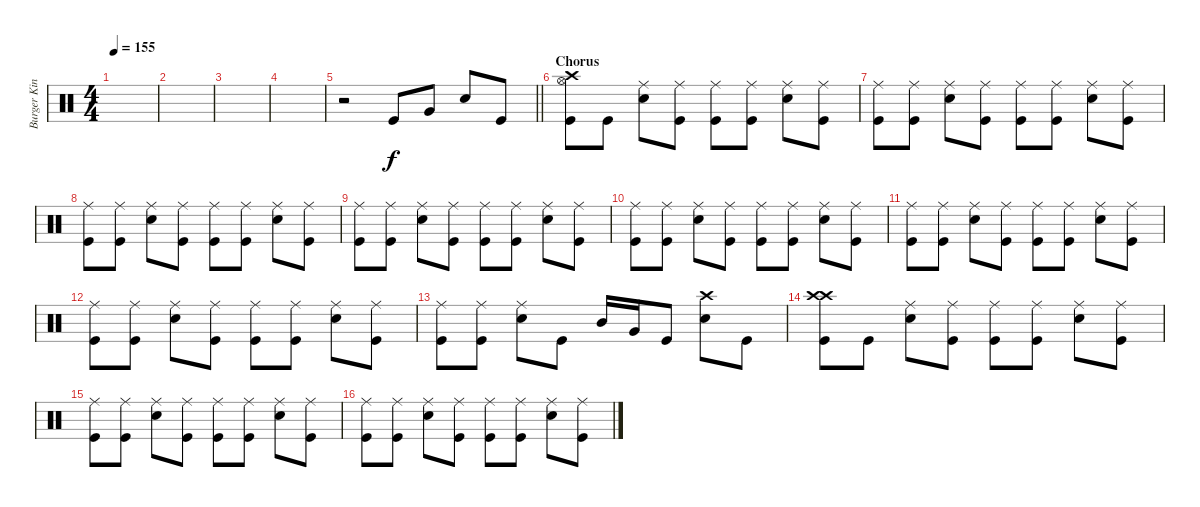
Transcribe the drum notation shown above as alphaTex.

\track ("Burger King" "Burger Kin") {instrument percussion}
\staff {score}
\articulation defaults
\ts (4 4)
\tempo 155
\clef neutral
\ks c
|
|
|
|
\barLineRight lightlight
r.2 "Kick (hit)".8 "Very Low Tom (hit)".8 "Snare (hit) 2".8 "Kick (hit)".8 |
\section ("" "Chorus")
("Hi-Hat (open)" "Crash high (hit)" "Kick (hit)").8 "Kick (hit)".8 ("Snare (hit) 2" "Ride (middle)").8 ("Kick (hit)" "Ride (middle)").8 ("Kick (hit)" "Ride (middle)").8 ("Kick (hit)" "Ride (middle)").8 ("Snare (hit) 2" "Ride (middle)").8 ("Ride (middle)" "Kick (hit)").8 |
("Kick (hit)" "Ride (middle)").8 ("Kick (hit)" "Ride (middle)").8 ("Snare (hit) 2" "Ride (middle)").8 ("Kick (hit)" "Ride (middle)").8 ("Kick (hit)" "Ride (middle)").8 ("Kick (hit)" "Ride (middle)").8 ("Snare (hit) 2" "Ride (middle)").8 ("Kick (hit)" "Ride (middle)").8 |
("Kick (hit)" "Ride (middle)").8 ("Kick (hit)" "Ride (middle)").8 ("Snare (hit) 2" "Ride (middle)").8 ("Kick (hit)" "Ride (middle)").8 ("Kick (hit)" "Ride (middle)").8 ("Kick (hit)" "Ride (middle)").8 ("Snare (hit) 2" "Ride (middle)").8 ("Kick (hit)" "Ride (middle)").8 |
("Kick (hit)" "Ride (middle)").8 ("Kick (hit)" "Ride (middle)").8 ("Snare (hit) 2" "Ride (middle)").8 ("Kick (hit)" "Ride (middle)").8 ("Kick (hit)" "Ride (middle)").8 ("Kick (hit)" "Ride (middle)").8 ("Snare (hit) 2" "Ride (middle)").8 ("Kick (hit)" "Ride (middle)").8 |
("Kick (hit)" "Ride (middle)").8 ("Kick (hit)" "Ride (middle)").8 ("Snare (hit) 2" "Ride (middle)").8 ("Kick (hit)" "Ride (middle)").8 ("Kick (hit)" "Ride (middle)").8 ("Kick (hit)" "Ride (middle)").8 ("Snare (hit) 2" "Ride (middle)").8 ("Kick (hit)" "Ride (middle)").8 |
("Kick (hit)" "Ride (middle)").8 ("Kick (hit)" "Ride (middle)").8 ("Snare (hit) 2" "Ride (middle)").8 ("Kick (hit)" "Ride (middle)").8 ("Kick (hit)" "Ride (middle)").8 ("Kick (hit)" "Ride (middle)").8 ("Snare (hit) 2" "Ride (middle)").8 ("Kick (hit)" "Ride (middle)").8 |
("Kick (hit)" "Ride (middle)").8 ("Kick (hit)" "Ride (middle)").8 ("Snare (hit) 2" "Ride (middle)").8 ("Kick (hit)" "Ride (middle)").8 ("Kick (hit)" "Ride (middle)").8 ("Kick (hit)" "Ride (middle)").8 ("Snare (hit) 2" "Ride (middle)").8 ("Kick (hit)" "Ride (middle)").8 |
("Kick (hit)" "Ride (middle)").8 ("Kick (hit)" "Ride (middle)").8 ("Snare (hit) 2" "Ride (middle)").8 "Kick (hit)".8 "Mid Tom (hit)".16 "Very Low Tom (hit)".16 "Kick (hit)".8 ("Crash high (hit)" "Snare (hit) 2").8 "Kick (hit)".8 |
("Crash high (hit)" "Crash high (hit)" "Kick (hit)").8 "Kick (hit)".8 ("Snare (hit) 2" "Ride (middle)").8 ("Kick (hit)" "Ride (middle)").8 ("Kick (hit)" "Ride (middle)").8 ("Kick (hit)" "Ride (middle)").8 ("Snare (hit) 2" "Ride (middle)").8 ("Ride (middle)" "Kick (hit)").8 |
("Kick (hit)" "Ride (middle)").8 ("Kick (hit)" "Ride (middle)").8 ("Snare (hit) 2" "Ride (middle)").8 ("Kick (hit)" "Ride (middle)").8 ("Kick (hit)" "Ride (middle)").8 ("Kick (hit)" "Ride (middle)").8 ("Snare (hit) 2" "Ride (middle)").8 ("Kick (hit)" "Ride (middle)").8 |
("Kick (hit)" "Ride (middle)").8 ("Kick (hit)" "Ride (middle)").8 ("Snare (hit) 2" "Ride (middle)").8 ("Kick (hit)" "Ride (middle)").8 ("Kick (hit)" "Ride (middle)").8 ("Kick (hit)" "Ride (middle)").8 ("Snare (hit) 2" "Ride (middle)").8 ("Kick (hit)" "Ride (middle)").8
